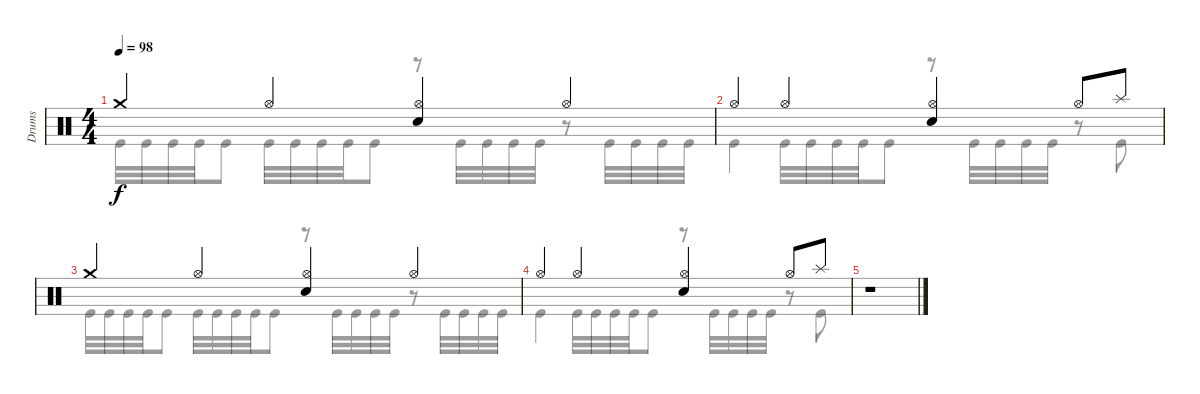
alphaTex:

\track ("Drums" "Drums") {instrument percussion}
\staff {score}
\articulation defaults
\voice
\ts (4 4)
\tempo 98
\clef neutral
\ks c "Crash medium (hit)".4{dy f} "Hi-Hat (open)".4
("Hi-Hat (open)" "Electric Snare (hit)").4 "Hi-Hat (open)".4 |
"Hi-Hat (open)".4 "Hi-Hat (open)".4 ("Hi-Hat (open)" "Electric Snare (hit)").4 "Hi-Hat (open)".8 "Splash (hit)".8 |
"Crash medium (hit)".4 "Hi-Hat (open)".4 ("Hi-Hat (open)" "Electric Snare (hit)").4 "Hi-Hat (open)".4 |
"Hi-Hat (open)".4 "Hi-Hat (open)".4 ("Hi-Hat (open)" "Electric Snare (hit)").4 "Hi-Hat (open)".8 "Splash (hit)".8 |
r.1
\voice
\clef neutral
\ottava regular
\simile none
\ks c "Kick (hit)".32{dy f} "Kick (hit)".32 "Kick (hit)".32 "Kick (hit)".32 "Kick (hit)".8 "Kick (hit)".32 "Kick (hit)".32 "Kick (hit)".32 "Kick (hit)".32 "Kick (hit)".8
r.8 "Kick (hit)".32 "Kick (hit)".32 "Kick (hit)".32 "Kick (hit)".32 r.8 "Kick (hit)".32 "Kick (hit)".32 "Kick (hit)".32 "Kick (hit)".32 |
"Kick (hit)".4 "Kick (hit)".32 "Kick (hit)".32 "Kick (hit)".32 "Kick (hit)".32 "Kick (hit)".8 r.8 "Kick (hit)".32 "Kick (hit)".32 "Kick (hit)".32 "Kick (hit)".32 r.8 "Kick (hit)".8 |
"Kick (hit)".32 "Kick (hit)".32 "Kick (hit)".32 "Kick (hit)".32 "Kick (hit)".8 "Kick (hit)".32 "Kick (hit)".32 "Kick (hit)".32 "Kick (hit)".32 "Kick (hit)".8 r.8 "Kick (hit)".32 "Kick (hit)".32 "Kick (hit)".32 "Kick (hit)".32 r.8 "Kick (hit)".32 "Kick (hit)".32 "Kick (hit)".32 "Kick (hit)".32 |
"Kick (hit)".4 "Kick (hit)".32 "Kick (hit)".32 "Kick (hit)".32 "Kick (hit)".32 "Kick (hit)".8 r.8 "Kick (hit)".32 "Kick (hit)".32 "Kick (hit)".32 "Kick (hit)".32 r.8 "Kick (hit)".8 |
r.1
